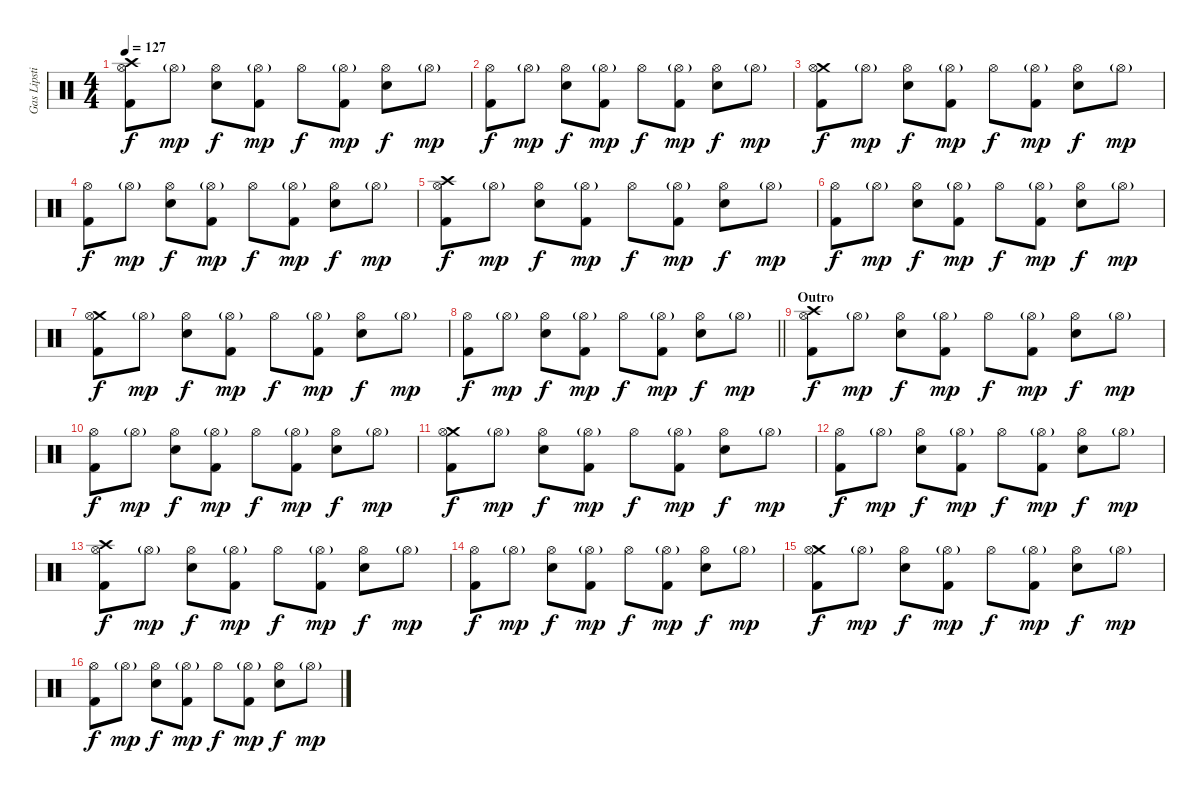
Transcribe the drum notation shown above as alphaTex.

\track ("Gas Lipstick (Drums)" "Gas Lipsti") {instrument percussion}
\staff {score}
\articulation defaults
\ts (4 4)
\tempo 127
\clef neutral
\ks c
("Crash high (hit)" "Hi-Hat (open)" "Kick (hit) 2").8{dy f} "Hi-Hat (open)"{g}.8{dy mp} ("Hi-Hat (open)" "Snare (hit) 2").8{dy f} ("Hi-Hat (open)"{g} "Kick (hit) 2").8{dy mp} "Hi-Hat (open)".8{dy f} ("Hi-Hat (open)"{g} "Kick (hit) 2").8{dy mp} ("Hi-Hat (open)" "Snare (hit) 2").8{dy f} "Hi-Hat (open)"{g}.8{dy mp} |
("Hi-Hat (open)" "Kick (hit) 2").8{dy f} "Hi-Hat (open)"{g}.8{dy mp} ("Hi-Hat (open)" "Snare (hit) 2").8{dy f} ("Hi-Hat (open)"{g} "Kick (hit) 2").8{dy mp} "Hi-Hat (open)".8{dy f} ("Hi-Hat (open)"{g} "Kick (hit) 2").8{dy mp} ("Hi-Hat (open)" "Snare (hit) 2").8{dy f} "Hi-Hat (open)"{g}.8{dy mp} |
("Crash medium (hit)" "Hi-Hat (open)" "Kick (hit) 2").8{dy f} "Hi-Hat (open)"{g}.8{dy mp} ("Hi-Hat (open)" "Snare (hit) 2").8{dy f} ("Hi-Hat (open)"{g} "Kick (hit) 2").8{dy mp} "Hi-Hat (open)".8{dy f} ("Hi-Hat (open)"{g} "Kick (hit) 2").8{dy mp} ("Hi-Hat (open)" "Snare (hit) 2").8{dy f} "Hi-Hat (open)"{g}.8{dy mp} |
("Hi-Hat (open)" "Kick (hit) 2").8{dy f} "Hi-Hat (open)"{g}.8{dy mp} ("Hi-Hat (open)" "Snare (hit) 2").8{dy f} ("Hi-Hat (open)"{g} "Kick (hit) 2").8{dy mp} "Hi-Hat (open)".8{dy f} ("Hi-Hat (open)"{g} "Kick (hit) 2").8{dy mp} ("Hi-Hat (open)" "Snare (hit) 2").8{dy f} "Hi-Hat (open)"{g}.8{dy mp} |
("Crash high (hit)" "Hi-Hat (open)" "Kick (hit) 2").8{dy f} "Hi-Hat (open)"{g}.8{dy mp} ("Hi-Hat (open)" "Snare (hit) 2").8{dy f} ("Hi-Hat (open)"{g} "Kick (hit) 2").8{dy mp} "Hi-Hat (open)".8{dy f} ("Hi-Hat (open)"{g} "Kick (hit) 2").8{dy mp} ("Hi-Hat (open)" "Snare (hit) 2").8{dy f} "Hi-Hat (open)"{g}.8{dy mp} |
("Hi-Hat (open)" "Kick (hit) 2").8{dy f} "Hi-Hat (open)"{g}.8{dy mp} ("Hi-Hat (open)" "Snare (hit) 2").8{dy f} ("Hi-Hat (open)"{g} "Kick (hit) 2").8{dy mp} "Hi-Hat (open)".8{dy f} ("Hi-Hat (open)"{g} "Kick (hit) 2").8{dy mp} ("Hi-Hat (open)" "Snare (hit) 2").8{dy f} "Hi-Hat (open)"{g}.8{dy mp} |
("Crash medium (hit)" "Hi-Hat (open)" "Kick (hit) 2").8{dy f} "Hi-Hat (open)"{g}.8{dy mp} ("Hi-Hat (open)" "Snare (hit) 2").8{dy f} ("Hi-Hat (open)"{g} "Kick (hit) 2").8{dy mp} "Hi-Hat (open)".8{dy f} ("Hi-Hat (open)"{g} "Kick (hit) 2").8{dy mp} ("Hi-Hat (open)" "Snare (hit) 2").8{dy f} "Hi-Hat (open)"{g}.8{dy mp} |
\barLineRight lightlight
("Hi-Hat (open)" "Kick (hit) 2").8{dy f} "Hi-Hat (open)"{g}.8{dy mp} ("Hi-Hat (open)" "Snare (hit) 2").8{dy f} ("Hi-Hat (open)"{g} "Kick (hit) 2").8{dy mp} "Hi-Hat (open)".8{dy f} ("Hi-Hat (open)"{g} "Kick (hit) 2").8{dy mp} ("Hi-Hat (open)" "Snare (hit) 2").8{dy f} "Hi-Hat (open)"{g}.8{dy mp} |
\section ("" "Outro")
("Crash high (hit)" "Hi-Hat (open)" "Kick (hit) 2").8{dy f} "Hi-Hat (open)"{g}.8{dy mp} ("Hi-Hat (open)" "Snare (hit) 2").8{dy f} ("Hi-Hat (open)"{g} "Kick (hit) 2").8{dy mp} "Hi-Hat (open)".8{dy f} ("Hi-Hat (open)"{g} "Kick (hit) 2").8{dy mp} ("Hi-Hat (open)" "Snare (hit) 2").8{dy f} "Hi-Hat (open)"{g}.8{dy mp} |
("Hi-Hat (open)" "Kick (hit) 2").8{dy f} "Hi-Hat (open)"{g}.8{dy mp} ("Hi-Hat (open)" "Snare (hit) 2").8{dy f} ("Hi-Hat (open)"{g} "Kick (hit) 2").8{dy mp} "Hi-Hat (open)".8{dy f} ("Hi-Hat (open)"{g} "Kick (hit) 2").8{dy mp} ("Hi-Hat (open)" "Snare (hit) 2").8{dy f} "Hi-Hat (open)"{g}.8{dy mp} |
("Crash medium (hit)" "Hi-Hat (open)" "Kick (hit) 2").8{dy f} "Hi-Hat (open)"{g}.8{dy mp} ("Hi-Hat (open)" "Snare (hit) 2").8{dy f} ("Hi-Hat (open)"{g} "Kick (hit) 2").8{dy mp} "Hi-Hat (open)".8{dy f} ("Hi-Hat (open)"{g} "Kick (hit) 2").8{dy mp} ("Hi-Hat (open)" "Snare (hit) 2").8{dy f} "Hi-Hat (open)"{g}.8{dy mp} |
("Hi-Hat (open)" "Kick (hit) 2").8{dy f} "Hi-Hat (open)"{g}.8{dy mp} ("Hi-Hat (open)" "Snare (hit) 2").8{dy f} ("Hi-Hat (open)"{g} "Kick (hit) 2").8{dy mp} "Hi-Hat (open)".8{dy f} ("Hi-Hat (open)"{g} "Kick (hit) 2").8{dy mp} ("Hi-Hat (open)" "Snare (hit) 2").8{dy f} "Hi-Hat (open)"{g}.8{dy mp} |
("Crash high (hit)" "Hi-Hat (open)" "Kick (hit) 2").8{dy f} "Hi-Hat (open)"{g}.8{dy mp} ("Hi-Hat (open)" "Snare (hit) 2").8{dy f} ("Hi-Hat (open)"{g} "Kick (hit) 2").8{dy mp} "Hi-Hat (open)".8{dy f} ("Hi-Hat (open)"{g} "Kick (hit) 2").8{dy mp} ("Hi-Hat (open)" "Snare (hit) 2").8{dy f} "Hi-Hat (open)"{g}.8{dy mp} |
("Hi-Hat (open)" "Kick (hit) 2").8{dy f} "Hi-Hat (open)"{g}.8{dy mp} ("Hi-Hat (open)" "Snare (hit) 2").8{dy f} ("Hi-Hat (open)"{g} "Kick (hit) 2").8{dy mp} "Hi-Hat (open)".8{dy f} ("Hi-Hat (open)"{g} "Kick (hit) 2").8{dy mp} ("Hi-Hat (open)" "Snare (hit) 2").8{dy f} "Hi-Hat (open)"{g}.8{dy mp} |
("Crash medium (hit)" "Hi-Hat (open)" "Kick (hit) 2").8{dy f} "Hi-Hat (open)"{g}.8{dy mp} ("Hi-Hat (open)" "Snare (hit) 2").8{dy f} ("Hi-Hat (open)"{g} "Kick (hit) 2").8{dy mp} "Hi-Hat (open)".8{dy f} ("Hi-Hat (open)"{g} "Kick (hit) 2").8{dy mp} ("Hi-Hat (open)" "Snare (hit) 2").8{dy f} "Hi-Hat (open)"{g}.8{dy mp} |
("Hi-Hat (open)" "Kick (hit) 2").8{dy f} "Hi-Hat (open)"{g}.8{dy mp} ("Hi-Hat (open)" "Snare (hit) 2").8{dy f} ("Hi-Hat (open)"{g} "Kick (hit) 2").8{dy mp} "Hi-Hat (open)".8{dy f} ("Hi-Hat (open)"{g} "Kick (hit) 2").8{dy mp} ("Hi-Hat (open)" "Snare (hit) 2").8{dy f} "Hi-Hat (open)"{g}.8{dy mp}
